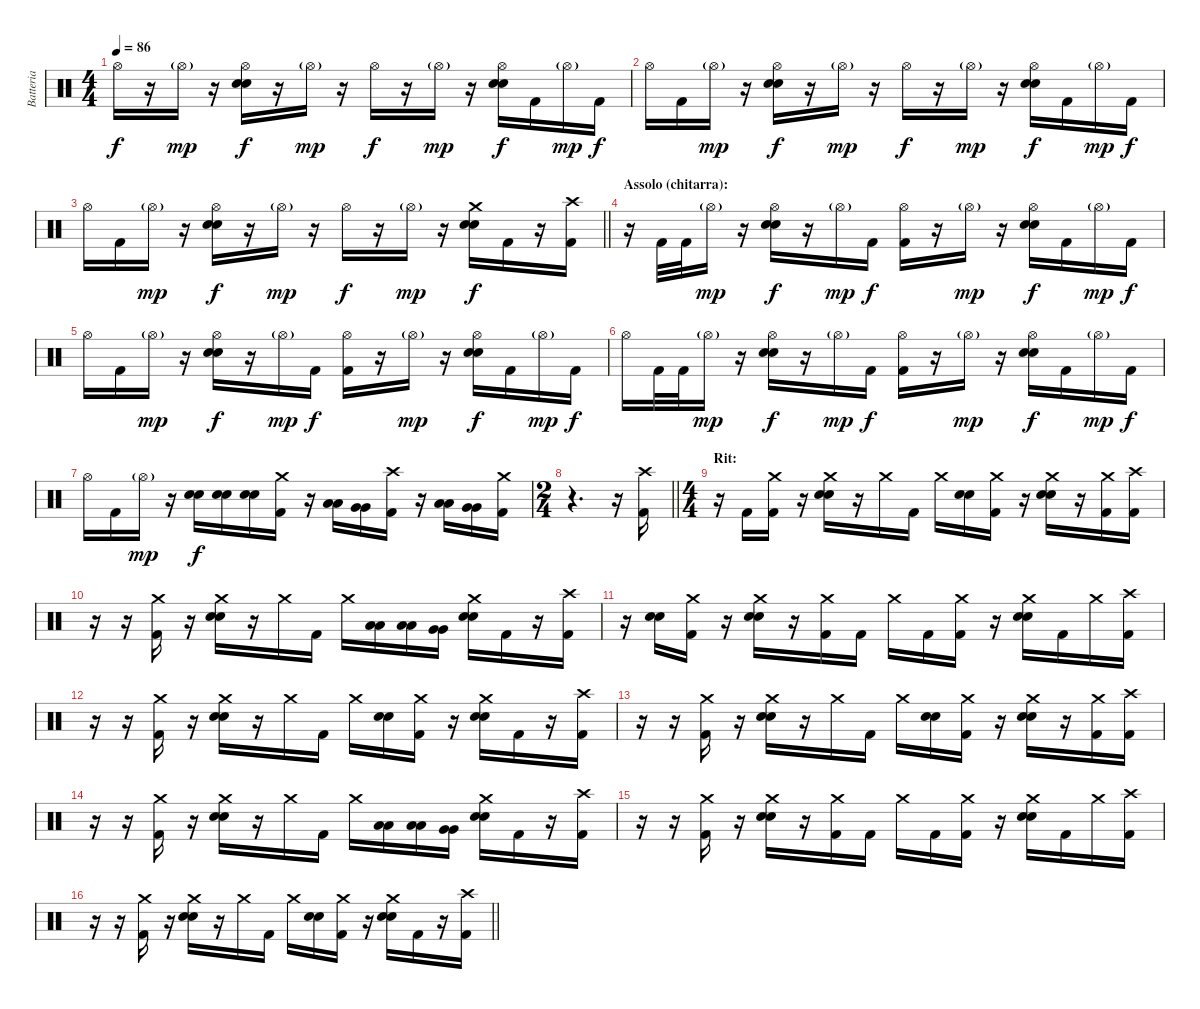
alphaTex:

\track ("Batteria" "Batteria") {instrument percussion}
\staff {score}
\articulation defaults
\ts (4 4)
\tempo 86
\clef neutral
\ks c "Hi-Hat (open)".16{dy f}
r.16 "Hi-Hat (open)"{g}.16{dy mp} r.16 ("Snare (hit) 2" "Snare (hit) 2" "Hi-Hat (open)").16{dy f} r.16 "Hi-Hat (open)"{g}.16{dy mp} r.16 "Hi-Hat (open)".16{dy f} r.16 "Hi-Hat (open)"{g}.16{dy mp} r.16 ("Snare (hit) 2" "Snare (hit) 2" "Hi-Hat (open)").16{dy f} "Kick (hit) 2".16 "Hi-Hat (open)"{g}.16{dy mp} "Kick (hit) 2".16{dy f} |
"Hi-Hat (open)".16 "Kick (hit) 2".16 "Hi-Hat (open)"{g}.16{dy mp} r.16 ("Snare (hit) 2" "Snare (hit) 2" "Hi-Hat (open)").16{dy f} r.16 "Hi-Hat (open)"{g}.16{dy mp} r.16 "Hi-Hat (open)".16{dy f} r.16 "Hi-Hat (open)"{g}.16{dy mp} r.16 ("Snare (hit) 2" "Snare (hit) 2" "Hi-Hat (open)").16{dy f} "Kick (hit) 2".16 "Hi-Hat (open)"{g}.16{dy mp} "Kick (hit) 2".16{dy f} |
\barLineRight lightlight "Hi-Hat (open)".16 "Kick (hit) 2".16 "Hi-Hat (open)"{g}.16{dy mp}
r.16 ("Snare (hit) 2" "Snare (hit) 2" "Hi-Hat (open)").16{dy f} r.16 "Hi-Hat (open)"{g}.16{dy mp} r.16 "Hi-Hat (open)".16{dy f} r.16 "Hi-Hat (open)"{g}.16{dy mp} r.16 ("Snare (hit) 2" "Snare (hit) 2" "Crash medium (hit)").16{dy f} "Kick (hit) 2".16 r.16 ("Kick (hit) 2" "Crash high (hit)").16 |
\section ("" "Assolo (chitarra):")
r.16 "Kick (hit) 2".32 "Kick (hit) 2".32 "Hi-Hat (open)"{g}.16{dy mp} r.16 ("Snare (hit) 2" "Snare (hit) 2" "Hi-Hat (open)").16{dy f} r.16 "Hi-Hat (open)"{g}.16{dy mp} "Kick (hit) 2".16{dy f} ("Kick (hit) 2" "Hi-Hat (open)").16 r.16 "Hi-Hat (open)"{g}.16{dy mp} r.16 ("Snare (hit) 2" "Snare (hit) 2" "Hi-Hat (open)").16{dy f} "Kick (hit) 2".16 "Hi-Hat (open)"{g}.16{dy mp} "Kick (hit) 2".16{dy f} |
"Hi-Hat (open)".16 "Kick (hit) 2".16 "Hi-Hat (open)"{g}.16{dy mp} r.16 ("Snare (hit) 2" "Snare (hit) 2" "Hi-Hat (open)").16{dy f} r.16 "Hi-Hat (open)"{g}.16{dy mp} "Kick (hit) 2".16{dy f} ("Kick (hit) 2" "Hi-Hat (open)").16 r.16 "Hi-Hat (open)"{g}.16{dy mp} r.16 ("Snare (hit) 2" "Snare (hit) 2" "Hi-Hat (open)").16{dy f} "Kick (hit) 2".16 "Hi-Hat (open)"{g}.16{dy mp} "Kick (hit) 2".16{dy f} |
"Hi-Hat (open)".16 "Kick (hit) 2".32 "Kick (hit) 2".32 "Hi-Hat (open)"{g}.16{dy mp} r.16 ("Snare (hit) 2" "Snare (hit) 2" "Hi-Hat (open)").16{dy f} r.16 "Hi-Hat (open)"{g}.16{dy mp} "Kick (hit) 2".16{dy f} ("Kick (hit) 2" "Hi-Hat (open)").16 r.16 "Hi-Hat (open)"{g}.16{dy mp} r.16 ("Snare (hit) 2" "Snare (hit) 2" "Hi-Hat (open)").16{dy f} "Kick (hit) 2".16 "Hi-Hat (open)"{g}.16{dy mp} "Kick (hit) 2".16{dy f} |
"Hi-Hat (open)".16 "Kick (hit) 2".16 "Hi-Hat (open)"{g}.16{dy mp} r.16 ("Snare (hit) 2" "Snare (hit) 2").16{dy f} ("Snare (hit) 2" "Snare (hit) 2").16 ("Snare (hit) 2" "Snare (hit) 2").16 ("Kick (hit) 2" "Crash medium (hit)").16 r.16 ("Low Tom (hit)" "Low Tom (hit)").16 ("Very Low Tom (hit)" "Very Low Tom (hit)").16 ("Kick (hit) 2" "Crash high (hit)").16 r.16 ("Low Tom (hit)" "Low Tom (hit)").16 ("Very Low Tom (hit)" "Very Low Tom (hit)").16 ("Kick (hit) 2" "Crash medium (hit)").16 |
\ts (2 4)
\barLineRight lightlight
r.4{d} r.16 ("Kick (hit) 2" "Crash high (hit)").16 |
\ts (4 4)
\section ("" "Rit:")
r.16 "Kick (hit) 2".16 ("Kick (hit) 2" "Crash medium (hit)").16 r.16 ("Snare (hit) 2" "Snare (hit) 2" "Crash medium (hit)").16 r.16 "Crash medium (hit)".16 "Kick (hit) 2".16 "Crash medium (hit)".16 ("Snare (hit) 2" "Snare (hit) 2").16 ("Kick (hit) 2" "Crash medium (hit)").16 r.16 ("Snare (hit) 2" "Snare (hit) 2" "Crash medium (hit)").16 r.16 ("Kick (hit) 2" "Crash medium (hit)").16 ("Kick (hit) 2" "Crash high (hit)").16 |
r.16 r.16 ("Kick (hit) 2" "Crash medium (hit)").16 r.16 ("Snare (hit) 2" "Snare (hit) 2" "Crash medium (hit)").16 r.16 "Crash medium (hit)".16 "Kick (hit) 2".16 "Crash medium (hit)".16 ("Low Tom (hit)" "Low Tom (hit)").16 ("Low Tom (hit)" "Low Tom (hit)").16 ("Very Low Tom (hit)" "Very Low Tom (hit)").16 ("Snare (hit) 2" "Snare (hit) 2" "Crash medium (hit)").16 "Kick (hit) 2".16 r.16 ("Kick (hit) 2" "Crash high (hit)").16 |
r.16 ("Snare (hit) 2" "Snare (hit) 2").16 ("Kick (hit) 2" "Crash medium (hit)").16 r.16 ("Snare (hit) 2" "Snare (hit) 2" "Crash medium (hit)").16 r.16 ("Kick (hit) 2" "Crash medium (hit)").16 "Kick (hit) 2".16 "Crash medium (hit)".16 "Kick (hit) 2".16 ("Kick (hit) 2" "Crash medium (hit)").16 r.16 ("Snare (hit) 2" "Snare (hit) 2" "Crash medium (hit)").16 "Kick (hit) 2".16 "Crash medium (hit)".16 ("Kick (hit) 2" "Crash high (hit)").16 |
r.16 r.16 ("Kick (hit) 2" "Crash medium (hit)").16 r.16 ("Snare (hit) 2" "Snare (hit) 2" "Crash medium (hit)").16 r.16 "Crash medium (hit)".16 "Kick (hit) 2".16 "Crash medium (hit)".16 ("Snare (hit) 2" "Snare (hit) 2").16 ("Kick (hit) 2" "Crash medium (hit)").16 r.16 ("Snare (hit) 2" "Snare (hit) 2" "Crash medium (hit)").16 "Kick (hit) 2".16 r.16 ("Kick (hit) 2" "Crash high (hit)").16 |
r.16 r.16 ("Kick (hit) 2" "Crash medium (hit)").16 r.16 ("Snare (hit) 2" "Snare (hit) 2" "Crash medium (hit)").16 r.16 "Crash medium (hit)".16 "Kick (hit) 2".16 "Crash medium (hit)".16 ("Snare (hit) 2" "Snare (hit) 2").16 ("Kick (hit) 2" "Crash medium (hit)").16 r.16 ("Snare (hit) 2" "Snare (hit) 2" "Crash medium (hit)").16 r.16 ("Kick (hit) 2" "Crash medium (hit)").16 ("Kick (hit) 2" "Crash high (hit)").16 |
r.16 r.16 ("Kick (hit) 2" "Crash medium (hit)").16 r.16 ("Snare (hit) 2" "Snare (hit) 2" "Crash medium (hit)").16 r.16 "Crash medium (hit)".16 "Kick (hit) 2".16 "Crash medium (hit)".16 ("Low Tom (hit)" "Low Tom (hit)").16 ("Low Tom (hit)" "Low Tom (hit)").16 ("Very Low Tom (hit)" "Very Low Tom (hit)").16 ("Snare (hit) 2" "Snare (hit) 2" "Crash medium (hit)").16 "Kick (hit) 2".16 r.16 ("Kick (hit) 2" "Crash high (hit)").16 |
r.16 r.16 ("Kick (hit) 2" "Crash medium (hit)").16 r.16 ("Snare (hit) 2" "Snare (hit) 2" "Crash medium (hit)").16 r.16 ("Kick (hit) 2" "Crash medium (hit)").16 "Kick (hit) 2".16 "Crash medium (hit)".16 "Kick (hit) 2".16 ("Kick (hit) 2" "Crash medium (hit)").16 r.16 ("Snare (hit) 2" "Snare (hit) 2" "Crash medium (hit)").16 "Kick (hit) 2".16 "Crash medium (hit)".16 ("Kick (hit) 2" "Crash high (hit)").16 |
\barLineRight lightlight
r.16 r.16 ("Kick (hit) 2" "Crash medium (hit)").16 r.16 ("Snare (hit) 2" "Snare (hit) 2" "Crash medium (hit)").16 r.16 "Crash medium (hit)".16 "Kick (hit) 2".16 "Crash medium (hit)".16 ("Snare (hit) 2" "Snare (hit) 2").16 ("Kick (hit) 2" "Crash medium (hit)").16 r.16 ("Snare (hit) 2" "Snare (hit) 2" "Crash medium (hit)").16 "Kick (hit) 2".16 r.16 ("Kick (hit) 2" "Crash high (hit)").16
